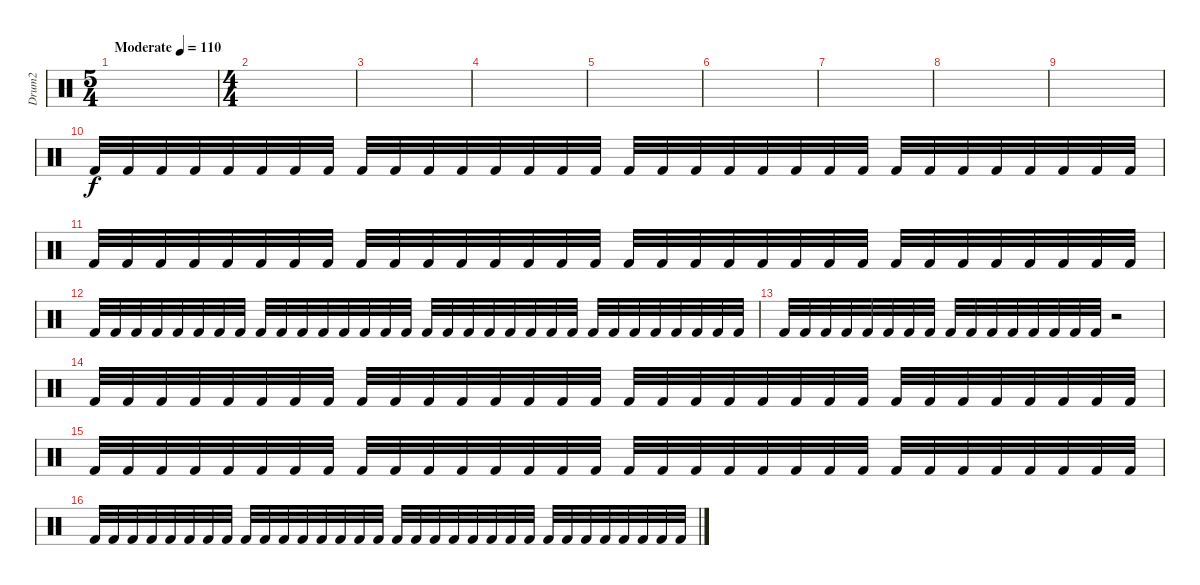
\track ("Drum2" "Drum2") {instrument percussion}
\staff {score}
\articulation defaults
\ts (5 4)
\tempo (110 "Moderate")
\clef neutral
\ks c
|
\ts (4 4)
|
|
|
|
|
|
|
|
"Kick (hit) 2".32 "Kick (hit) 2".32 "Kick (hit) 2".32 "Kick (hit) 2".32 "Kick (hit) 2".32 "Kick (hit) 2".32 "Kick (hit) 2".32 "Kick (hit) 2".32 "Kick (hit) 2".32 "Kick (hit) 2".32 "Kick (hit) 2".32 "Kick (hit) 2".32 "Kick (hit) 2".32 "Kick (hit) 2".32 "Kick (hit) 2".32 "Kick (hit) 2".32 "Kick (hit) 2".32 "Kick (hit) 2".32 "Kick (hit) 2".32 "Kick (hit) 2".32 "Kick (hit) 2".32 "Kick (hit) 2".32 "Kick (hit) 2".32 "Kick (hit) 2".32 "Kick (hit) 2".32 "Kick (hit) 2".32 "Kick (hit) 2".32 "Kick (hit) 2".32 "Kick (hit) 2".32 "Kick (hit) 2".32 "Kick (hit) 2".32 "Kick (hit) 2".32 |
"Kick (hit) 2".32 "Kick (hit) 2".32 "Kick (hit) 2".32 "Kick (hit) 2".32 "Kick (hit) 2".32 "Kick (hit) 2".32 "Kick (hit) 2".32 "Kick (hit) 2".32 "Kick (hit) 2".32 "Kick (hit) 2".32 "Kick (hit) 2".32 "Kick (hit) 2".32 "Kick (hit) 2".32 "Kick (hit) 2".32 "Kick (hit) 2".32 "Kick (hit) 2".32 "Kick (hit) 2".32 "Kick (hit) 2".32 "Kick (hit) 2".32 "Kick (hit) 2".32 "Kick (hit) 2".32 "Kick (hit) 2".32 "Kick (hit) 2".32 "Kick (hit) 2".32 "Kick (hit) 2".32 "Kick (hit) 2".32 "Kick (hit) 2".32 "Kick (hit) 2".32 "Kick (hit) 2".32 "Kick (hit) 2".32 "Kick (hit) 2".32 "Kick (hit) 2".32 |
"Kick (hit) 2".32 "Kick (hit) 2".32 "Kick (hit) 2".32 "Kick (hit) 2".32 "Kick (hit) 2".32 "Kick (hit) 2".32 "Kick (hit) 2".32 "Kick (hit) 2".32 "Kick (hit) 2".32 "Kick (hit) 2".32 "Kick (hit) 2".32 "Kick (hit) 2".32 "Kick (hit) 2".32 "Kick (hit) 2".32 "Kick (hit) 2".32 "Kick (hit) 2".32 "Kick (hit) 2".32 "Kick (hit) 2".32 "Kick (hit) 2".32 "Kick (hit) 2".32 "Kick (hit) 2".32 "Kick (hit) 2".32 "Kick (hit) 2".32 "Kick (hit) 2".32 "Kick (hit) 2".32 "Kick (hit) 2".32 "Kick (hit) 2".32 "Kick (hit) 2".32 "Kick (hit) 2".32 "Kick (hit) 2".32 "Kick (hit) 2".32 "Kick (hit) 2".32 |
"Kick (hit) 2".32 "Kick (hit) 2".32 "Kick (hit) 2".32 "Kick (hit) 2".32 "Kick (hit) 2".32 "Kick (hit) 2".32 "Kick (hit) 2".32 "Kick (hit) 2".32 "Kick (hit) 2".32 "Kick (hit) 2".32 "Kick (hit) 2".32 "Kick (hit) 2".32 "Kick (hit) 2".32 "Kick (hit) 2".32 "Kick (hit) 2".32 "Kick (hit) 2".32 r.2 |
"Kick (hit) 2".32 "Kick (hit) 2".32 "Kick (hit) 2".32 "Kick (hit) 2".32 "Kick (hit) 2".32 "Kick (hit) 2".32 "Kick (hit) 2".32 "Kick (hit) 2".32 "Kick (hit) 2".32 "Kick (hit) 2".32 "Kick (hit) 2".32 "Kick (hit) 2".32 "Kick (hit) 2".32 "Kick (hit) 2".32 "Kick (hit) 2".32 "Kick (hit) 2".32 "Kick (hit) 2".32 "Kick (hit) 2".32 "Kick (hit) 2".32 "Kick (hit) 2".32 "Kick (hit) 2".32 "Kick (hit) 2".32 "Kick (hit) 2".32 "Kick (hit) 2".32 "Kick (hit) 2".32 "Kick (hit) 2".32 "Kick (hit) 2".32 "Kick (hit) 2".32 "Kick (hit) 2".32 "Kick (hit) 2".32 "Kick (hit) 2".32 "Kick (hit) 2".32 |
"Kick (hit) 2".32 "Kick (hit) 2".32 "Kick (hit) 2".32 "Kick (hit) 2".32 "Kick (hit) 2".32 "Kick (hit) 2".32 "Kick (hit) 2".32 "Kick (hit) 2".32 "Kick (hit) 2".32 "Kick (hit) 2".32 "Kick (hit) 2".32 "Kick (hit) 2".32 "Kick (hit) 2".32 "Kick (hit) 2".32 "Kick (hit) 2".32 "Kick (hit) 2".32 "Kick (hit) 2".32 "Kick (hit) 2".32 "Kick (hit) 2".32 "Kick (hit) 2".32 "Kick (hit) 2".32 "Kick (hit) 2".32 "Kick (hit) 2".32 "Kick (hit) 2".32 "Kick (hit) 2".32 "Kick (hit) 2".32 "Kick (hit) 2".32 "Kick (hit) 2".32 "Kick (hit) 2".32 "Kick (hit) 2".32 "Kick (hit) 2".32 "Kick (hit) 2".32 |
"Kick (hit) 2".32 "Kick (hit) 2".32 "Kick (hit) 2".32 "Kick (hit) 2".32 "Kick (hit) 2".32 "Kick (hit) 2".32 "Kick (hit) 2".32 "Kick (hit) 2".32 "Kick (hit) 2".32 "Kick (hit) 2".32 "Kick (hit) 2".32 "Kick (hit) 2".32 "Kick (hit) 2".32 "Kick (hit) 2".32 "Kick (hit) 2".32 "Kick (hit) 2".32 "Kick (hit) 2".32 "Kick (hit) 2".32 "Kick (hit) 2".32 "Kick (hit) 2".32 "Kick (hit) 2".32 "Kick (hit) 2".32 "Kick (hit) 2".32 "Kick (hit) 2".32 "Kick (hit) 2".32 "Kick (hit) 2".32 "Kick (hit) 2".32 "Kick (hit) 2".32 "Kick (hit) 2".32 "Kick (hit) 2".32 "Kick (hit) 2".32 "Kick (hit) 2".32
